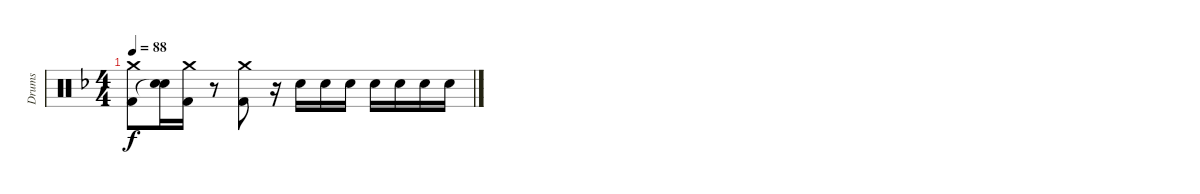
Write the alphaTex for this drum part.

\track ("Drums" "Drums") {instrument percussion}
\staff {score}
\articulation defaults
\ts (4 4)
\tempo 88
\clef neutral
\ks dminor
("Crash medium (hit)" "Kick (hit) 2").8{dy f} ("Electric Snare (hit)" "Snare (hit)"{t}).16 ("Crash medium (hit)" "Kick (hit) 2").16 r.8 ("Crash medium (hit)" "Kick (hit) 2").8 r.16 "Electric Snare (hit)".16 "Electric Snare (hit)".16 "Electric Snare (hit)".16 "Electric Snare (hit)".16 "Electric Snare (hit)".16 "Electric Snare (hit)".16 "Electric Snare (hit)".16
